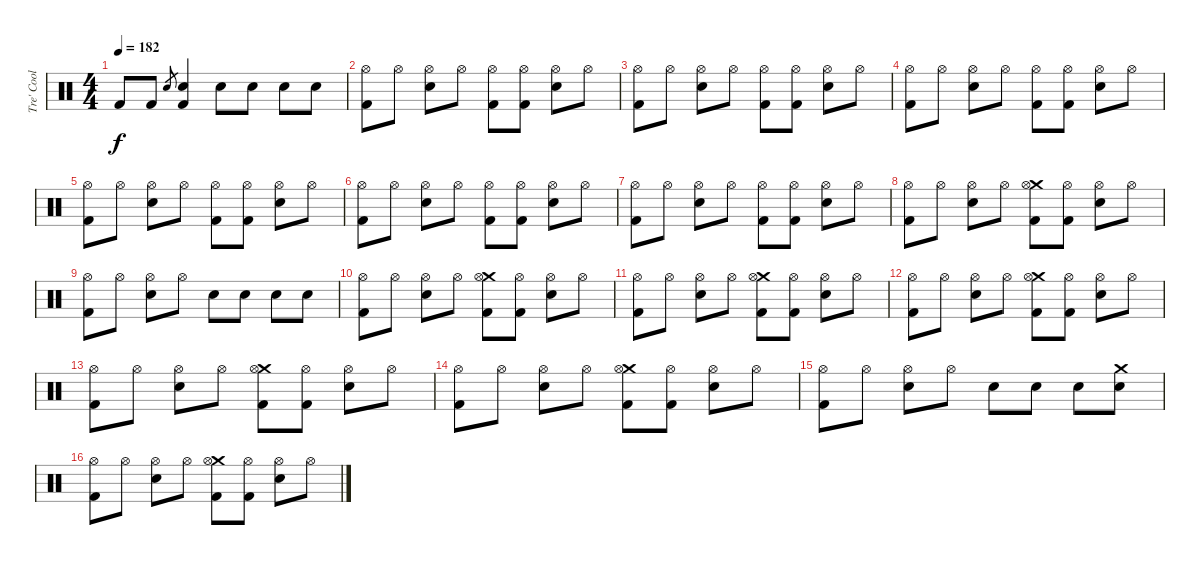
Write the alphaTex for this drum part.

\track ("Tre' Cool (DRUMS)!!!!!!!!!" "Tre' Cool ") {instrument percussion}
\staff {score}
\articulation defaults
\ts (4 4)
\tempo 182
\clef neutral
\ks c "Kick (hit) 2".8{dy f} "Kick (hit) 2".8 "Snare (hit) 2".8{gr}
("Snare (hit) 2" "Kick (hit) 2").4 "Snare (hit) 2".8 "Snare (hit) 2".8 "Snare (hit) 2".8 "Snare (hit) 2".8 |
("Hi-Hat (open)" "Kick (hit) 2").8 "Hi-Hat (open)".8 ("Hi-Hat (open)" "Snare (hit) 2").8 "Hi-Hat (open)".8 ("Hi-Hat (open)" "Kick (hit) 2").8 ("Hi-Hat (open)" "Kick (hit) 2").8 ("Hi-Hat (open)" "Snare (hit) 2").8 "Hi-Hat (open)".8 |
("Hi-Hat (open)" "Kick (hit) 2").8 "Hi-Hat (open)".8 ("Hi-Hat (open)" "Snare (hit) 2").8 "Hi-Hat (open)".8 ("Hi-Hat (open)" "Kick (hit) 2").8 ("Hi-Hat (open)" "Kick (hit) 2").8 ("Hi-Hat (open)" "Snare (hit) 2").8 "Hi-Hat (open)".8 |
("Hi-Hat (open)" "Kick (hit) 2").8 "Hi-Hat (open)".8 ("Hi-Hat (open)" "Snare (hit) 2").8 "Hi-Hat (open)".8 ("Hi-Hat (open)" "Kick (hit) 2").8 ("Hi-Hat (open)" "Kick (hit) 2").8 ("Hi-Hat (open)" "Snare (hit) 2").8 "Hi-Hat (open)".8 |
("Hi-Hat (open)" "Kick (hit) 2").8 "Hi-Hat (open)".8 ("Hi-Hat (open)" "Snare (hit) 2").8 "Hi-Hat (open)".8 ("Hi-Hat (open)" "Kick (hit) 2").8 ("Hi-Hat (open)" "Kick (hit) 2").8 ("Hi-Hat (open)" "Snare (hit) 2").8 "Hi-Hat (open)".8 |
("Hi-Hat (open)" "Kick (hit) 2").8 "Hi-Hat (open)".8 ("Hi-Hat (open)" "Snare (hit) 2").8 "Hi-Hat (open)".8 ("Hi-Hat (open)" "Kick (hit) 2").8 ("Hi-Hat (open)" "Kick (hit) 2").8 ("Hi-Hat (open)" "Snare (hit) 2").8 "Hi-Hat (open)".8 |
("Hi-Hat (open)" "Kick (hit) 2").8 "Hi-Hat (open)".8 ("Hi-Hat (open)" "Snare (hit) 2").8 "Hi-Hat (open)".8 ("Hi-Hat (open)" "Kick (hit) 2").8 ("Hi-Hat (open)" "Kick (hit) 2").8 ("Hi-Hat (open)" "Snare (hit) 2").8 "Hi-Hat (open)".8 |
("Hi-Hat (open)" "Kick (hit) 2").8 "Hi-Hat (open)".8 ("Hi-Hat (open)" "Snare (hit) 2").8 "Hi-Hat (open)".8 ("Crash medium (hit)" "Hi-Hat (open)" "Kick (hit) 2").8 ("Hi-Hat (open)" "Kick (hit) 2").8 ("Hi-Hat (open)" "Snare (hit) 2").8 "Hi-Hat (open)".8 |
("Hi-Hat (open)" "Kick (hit) 2").8 "Hi-Hat (open)".8 ("Hi-Hat (open)" "Snare (hit) 2").8 "Hi-Hat (open)".8 "Snare (hit) 2".8 "Snare (hit) 2".8 "Snare (hit) 2".8 "Snare (hit) 2".8 |
("Hi-Hat (open)" "Kick (hit) 2").8 "Hi-Hat (open)".8 ("Hi-Hat (open)" "Snare (hit) 2").8 "Hi-Hat (open)".8 ("Crash medium (hit)" "Hi-Hat (open)" "Kick (hit) 2").8 ("Hi-Hat (open)" "Kick (hit) 2").8 ("Hi-Hat (open)" "Snare (hit) 2").8 "Hi-Hat (open)".8 |
("Hi-Hat (open)" "Kick (hit) 2").8 "Hi-Hat (open)".8 ("Hi-Hat (open)" "Snare (hit) 2").8 "Hi-Hat (open)".8 ("Crash medium (hit)" "Hi-Hat (open)" "Kick (hit) 2").8 ("Hi-Hat (open)" "Kick (hit) 2").8 ("Hi-Hat (open)" "Snare (hit) 2").8 "Hi-Hat (open)".8 |
("Hi-Hat (open)" "Kick (hit) 2").8 "Hi-Hat (open)".8 ("Hi-Hat (open)" "Snare (hit) 2").8 "Hi-Hat (open)".8 ("Crash medium (hit)" "Hi-Hat (open)" "Kick (hit) 2").8 ("Hi-Hat (open)" "Kick (hit) 2").8 ("Hi-Hat (open)" "Snare (hit) 2").8 "Hi-Hat (open)".8 |
("Hi-Hat (open)" "Kick (hit) 2").8 "Hi-Hat (open)".8 ("Hi-Hat (open)" "Snare (hit) 2").8 "Hi-Hat (open)".8 ("Crash medium (hit)" "Hi-Hat (open)" "Kick (hit) 2").8 ("Hi-Hat (open)" "Kick (hit) 2").8 ("Hi-Hat (open)" "Snare (hit) 2").8 "Hi-Hat (open)".8 |
("Hi-Hat (open)" "Kick (hit) 2").8 "Hi-Hat (open)".8 ("Hi-Hat (open)" "Snare (hit) 2").8 "Hi-Hat (open)".8 ("Crash medium (hit)" "Hi-Hat (open)" "Kick (hit) 2").8 ("Hi-Hat (open)" "Kick (hit) 2").8 ("Hi-Hat (open)" "Snare (hit) 2").8 "Hi-Hat (open)".8 |
("Hi-Hat (open)" "Kick (hit) 2").8 "Hi-Hat (open)".8 ("Hi-Hat (open)" "Snare (hit) 2").8 "Hi-Hat (open)".8 "Snare (hit) 2".8 "Snare (hit) 2".8 "Snare (hit) 2".8 ("Crash medium (hit)" "Snare (hit) 2").8 |
("Hi-Hat (open)" "Kick (hit) 2").8 "Hi-Hat (open)".8 ("Hi-Hat (open)" "Snare (hit) 2").8 "Hi-Hat (open)".8 ("Crash medium (hit)" "Hi-Hat (open)" "Kick (hit) 2").8 ("Hi-Hat (open)" "Kick (hit) 2").8 ("Hi-Hat (open)" "Snare (hit) 2").8 "Hi-Hat (open)".8
